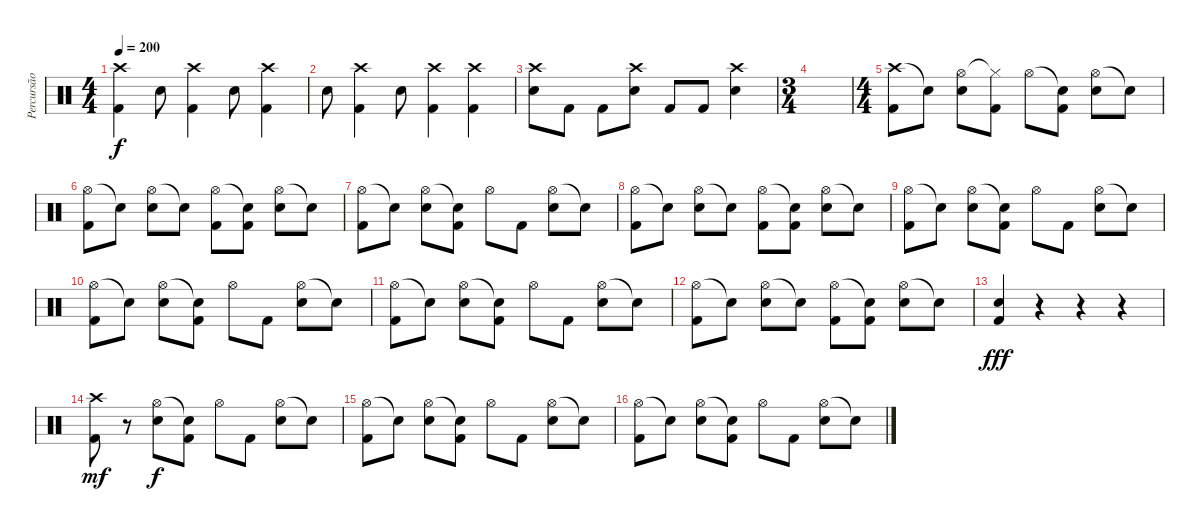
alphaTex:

\track ("Percursão" "Percursão") {instrument percussion}
\staff {score}
\articulation defaults
\ts (4 4)
\tempo 200
\clef neutral
\ks c
("Crash high (hit)" "Kick (hit) 2").4{dy f} "Electric Snare (hit)".8 ("Crash high (hit)" "Kick (hit) 2").4 "Electric Snare (hit)".8 ("Crash high (hit)" "Kick (hit) 2").4 |
"Electric Snare (hit)".8 ("Crash high (hit)" "Kick (hit) 2").4 "Electric Snare (hit)".8 ("Crash high (hit)" "Kick (hit) 2").4 ("Crash high (hit)" "Kick (hit) 2").4 |
("Crash high (hit)" "Electric Snare (hit)").8 "Kick (hit) 2".8 "Kick (hit) 2".8 ("Crash high (hit)" "Electric Snare (hit)").8 "Kick (hit) 2".8 "Kick (hit) 2".8 ("Crash high (hit)" "Electric Snare (hit)").4 |
\ts (3 4)
|
\ts (4 4)
("Crash high (hit)" "Kick (hit) 2").8 "Snare (hit)"{t}.8 ("Hi-Hat (open)" "Electric Snare (hit)").8 ("Hi-Hat (closed)"{t} "Kick (hit) 2").8 "Hi-Hat (open)".8 ("Snare (hit)"{t} "Kick (hit) 2").8 ("Hi-Hat (open)" "Electric Snare (hit)").8 "Snare (hit)"{t}.8 |
("Hi-Hat (open)" "Kick (hit) 2").8 "Snare (hit)"{t}.8 ("Hi-Hat (open)" "Electric Snare (hit)").8 "Snare (hit)"{t}.8 ("Hi-Hat (open)" "Kick (hit) 2").8 ("Snare (hit)"{t} "Kick (hit) 2").8 ("Hi-Hat (open)" "Electric Snare (hit)").8 "Snare (hit)"{t}.8 |
("Hi-Hat (open)" "Kick (hit) 2").8 "Snare (hit)"{t}.8 ("Hi-Hat (open)" "Electric Snare (hit)").8 ("Snare (hit)"{t} "Kick (hit) 2").8 "Hi-Hat (open)".8 "Kick (hit) 2".8 ("Hi-Hat (open)" "Electric Snare (hit)").8 "Snare (hit)"{t}.8 |
("Hi-Hat (open)" "Kick (hit) 2").8 "Snare (hit)"{t}.8 ("Hi-Hat (open)" "Electric Snare (hit)").8 "Snare (hit)"{t}.8 ("Hi-Hat (open)" "Kick (hit) 2").8 ("Snare (hit)"{t} "Kick (hit) 2").8 ("Hi-Hat (open)" "Electric Snare (hit)").8 "Snare (hit)"{t}.8 |
("Hi-Hat (open)" "Kick (hit) 2").8 "Snare (hit)"{t}.8 ("Hi-Hat (open)" "Electric Snare (hit)").8 ("Snare (hit)"{t} "Kick (hit) 2").8 "Hi-Hat (open)".8 "Kick (hit) 2".8 ("Hi-Hat (open)" "Electric Snare (hit)").8 "Snare (hit)"{t}.8 |
("Hi-Hat (open)" "Kick (hit) 2").8 "Snare (hit)"{t}.8 ("Hi-Hat (open)" "Electric Snare (hit)").8 ("Snare (hit)"{t} "Kick (hit) 2").8 "Hi-Hat (open)".8 "Kick (hit) 2".8 ("Hi-Hat (open)" "Electric Snare (hit)").8 "Snare (hit)"{t}.8 |
("Hi-Hat (open)" "Kick (hit) 2").8 "Snare (hit)"{t}.8 ("Hi-Hat (open)" "Electric Snare (hit)").8 ("Snare (hit)"{t} "Kick (hit) 2").8 "Hi-Hat (open)".8 "Kick (hit) 2".8 ("Hi-Hat (open)" "Electric Snare (hit)").8 "Snare (hit)"{t}.8 |
("Hi-Hat (open)" "Kick (hit) 2").8 "Snare (hit)"{t}.8 ("Hi-Hat (open)" "Electric Snare (hit)").8 "Snare (hit)"{t}.8 ("Hi-Hat (open)" "Kick (hit) 2").8 ("Snare (hit)"{t} "Kick (hit) 2").8 ("Hi-Hat (open)" "Electric Snare (hit)").8 "Snare (hit)"{t}.8 |
("Electric Snare (hit)" "Kick (hit) 2").4{dy fff} r.4 r.4 r.4 |
("Crash high (hit)" "Kick (hit) 2").8{dy mf} r.8 ("Hi-Hat (open)" "Electric Snare (hit)").8{dy f} ("Snare (hit)"{t} "Kick (hit) 2").8 "Hi-Hat (open)".8 "Kick (hit) 2".8 ("Hi-Hat (open)" "Electric Snare (hit)").8 "Snare (hit)"{t}.8 |
("Hi-Hat (open)" "Kick (hit) 2").8 "Snare (hit)"{t}.8 ("Hi-Hat (open)" "Electric Snare (hit)").8 ("Snare (hit)"{t} "Kick (hit) 2").8 "Hi-Hat (open)".8 "Kick (hit) 2".8 ("Hi-Hat (open)" "Electric Snare (hit)").8 "Snare (hit)"{t}.8 |
("Hi-Hat (open)" "Kick (hit) 2").8 "Snare (hit)"{t}.8 ("Hi-Hat (open)" "Electric Snare (hit)").8 ("Snare (hit)"{t} "Kick (hit) 2").8 "Hi-Hat (open)".8 "Kick (hit) 2".8 ("Hi-Hat (open)" "Electric Snare (hit)").8 "Snare (hit)"{t}.8
